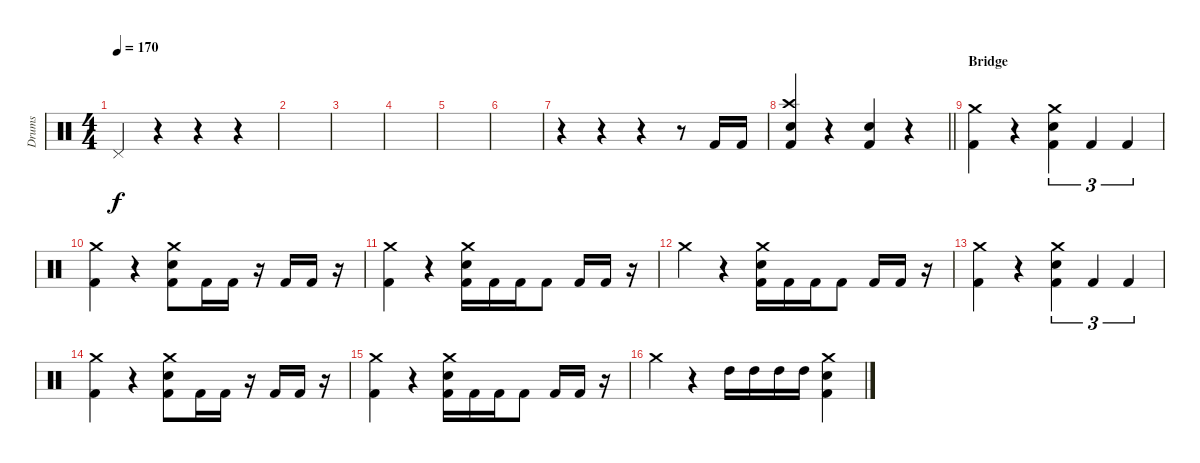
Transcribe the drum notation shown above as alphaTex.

\track ("Drums" "Drums") {instrument percussion}
\staff {score}
\articulation defaults
\ts (4 4)
\tempo 170
\clef neutral
\ks c "Pedal Hi-Hat (hit)".4{dy f}
r.4 r.4 r.4 |
|
|
|
|
|
r.4 r.4 r.4 r.8 "Kick (hit) 2".16 "Kick (hit) 2".16 |
\barLineRight lightlight
("Crash high (hit)" "Electric Snare (hit)" "Kick (hit) 2").4 r.4 ("Electric Snare (hit)" "Kick (hit) 2").4 r.4 |
\section ("" "Bridge")
("Crash medium (hit)" "Kick (hit) 2").4 r.4 ("Crash medium (hit)" "Electric Snare (hit)" "Kick (hit) 2").4{tu (3 2)} "Kick (hit) 2".4{tu (3 2)} "Kick (hit) 2".4{tu (3 2)} |
("Crash medium (hit)" "Kick (hit) 2").4 r.4 ("Crash medium (hit)" "Electric Snare (hit)" "Kick (hit) 2").8 "Kick (hit) 2".16 "Kick (hit) 2".16 r.16 "Kick (hit) 2".16 "Kick (hit) 2".16 r.16 |
("Crash medium (hit)" "Kick (hit) 2").4 r.4 ("Crash medium (hit)" "Electric Snare (hit)" "Kick (hit) 2").16 "Kick (hit) 2".16 "Kick (hit) 2".16 "Kick (hit) 2".8 "Kick (hit) 2".16 "Kick (hit) 2".16 r.16 |
"Crash medium (hit)".4 r.4 ("Crash medium (hit)" "Electric Snare (hit)" "Kick (hit) 2").16 "Kick (hit) 2".16 "Kick (hit) 2".16 "Kick (hit) 2".8 "Kick (hit) 2".16 "Kick (hit) 2".16 r.16 |
("Crash medium (hit)" "Kick (hit) 2").4 r.4 ("Crash medium (hit)" "Electric Snare (hit)" "Kick (hit) 2").4{tu (3 2)} "Kick (hit) 2".4{tu (3 2)} "Kick (hit) 2".4{tu (3 2)} |
("Crash medium (hit)" "Kick (hit) 2").4 r.4 ("Crash medium (hit)" "Electric Snare (hit)" "Kick (hit) 2").8 "Kick (hit) 2".16 "Kick (hit) 2".16 r.16 "Kick (hit) 2".16 "Kick (hit) 2".16 r.16 |
("Crash medium (hit)" "Kick (hit) 2").4 r.4 ("Crash medium (hit)" "Electric Snare (hit)" "Kick (hit) 2").16 "Kick (hit) 2".16 "Kick (hit) 2".16 "Kick (hit) 2".8 "Kick (hit) 2".16 "Kick (hit) 2".16 r.16 |
"Crash medium (hit)".4 r.4 "High Tom (hit)".16 "High Tom (hit)".16 "High Tom (hit)".16 "High Tom (hit)".16 ("Crash medium (hit)" "Electric Snare (hit)" "Kick (hit) 2").4
